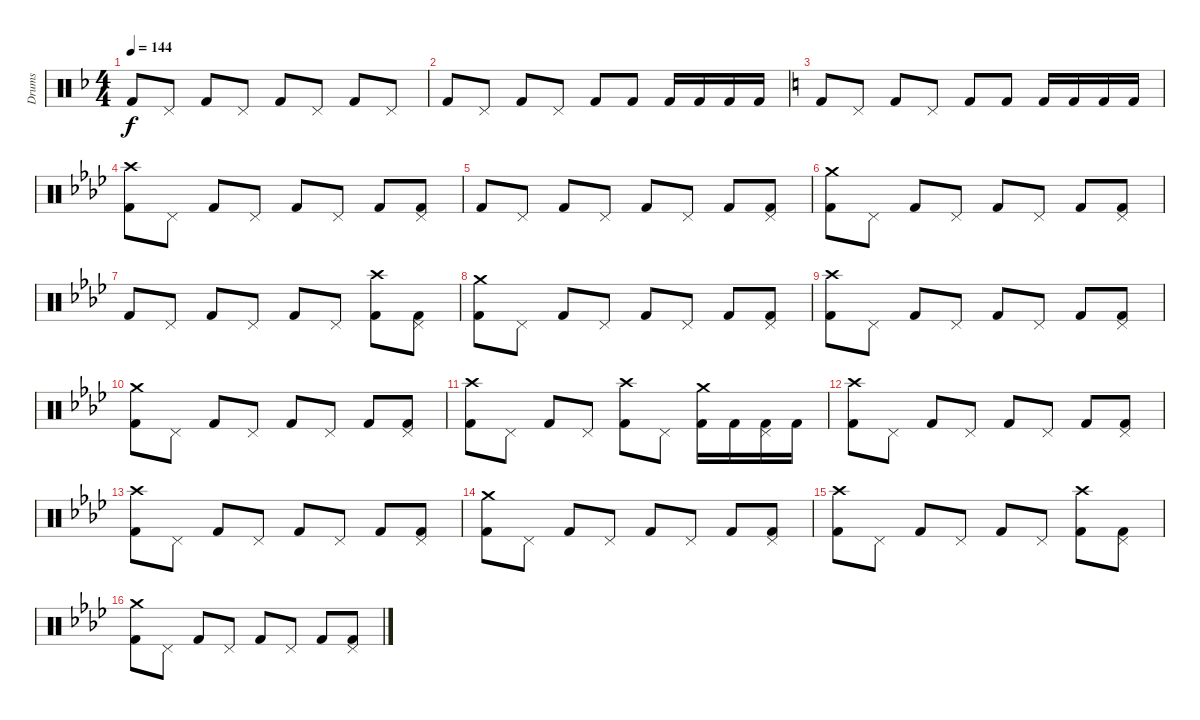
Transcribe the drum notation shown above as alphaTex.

\track ("Drums" "Drums") {instrument percussion}
\staff {score}
\articulation defaults
\ts (4 4)
\tempo 144
\clef neutral
\ks f "Kick (hit) 2".8{dy f} "Pedal Hi-Hat (hit)".8 "Kick (hit) 2".8 "Pedal Hi-Hat (hit)".8 "Kick (hit) 2".8 "Pedal Hi-Hat (hit)".8 "Kick (hit) 2".8 "Pedal Hi-Hat (hit)".8
|
"Kick (hit) 2".8 "Pedal Hi-Hat (hit)".8 "Kick (hit) 2".8 "Pedal Hi-Hat (hit)".8 "Kick (hit) 2".8 "Kick (hit) 2".8 "Kick (hit) 2".16 "Kick (hit) 2".16 "Kick (hit) 2".16 "Kick (hit) 2".16 |
\ks c "Kick (hit) 2".8 "Pedal Hi-Hat (hit)".8 "Kick (hit) 2".8 "Pedal Hi-Hat (hit)".8 "Kick (hit) 2".8 "Kick (hit) 2".8 "Kick (hit) 2".16 "Kick (hit) 2".16 "Kick (hit) 2".16 "Kick (hit) 2".16
|
\ks ab
("Kick (hit) 2" "Crash high (hit)").8 "Pedal Hi-Hat (hit)".8 "Kick (hit) 2".8 "Pedal Hi-Hat (hit)".8 "Kick (hit) 2".8 "Pedal Hi-Hat (hit)".8 "Kick (hit) 2".8 ("Kick (hit) 2" "Pedal Hi-Hat (hit)").8 |
"Kick (hit) 2".8 "Pedal Hi-Hat (hit)".8 "Kick (hit) 2".8 "Pedal Hi-Hat (hit)".8 "Kick (hit) 2".8 "Pedal Hi-Hat (hit)".8 "Kick (hit) 2".8 ("Kick (hit) 2" "Pedal Hi-Hat (hit)").8 |
("Kick (hit) 2" "Crash medium (hit)").8 "Pedal Hi-Hat (hit)".8 "Kick (hit) 2".8 "Pedal Hi-Hat (hit)".8 "Kick (hit) 2".8 "Pedal Hi-Hat (hit)".8 "Kick (hit) 2".8 ("Kick (hit) 2" "Pedal Hi-Hat (hit)").8 |
"Kick (hit) 2".8 "Pedal Hi-Hat (hit)".8 "Kick (hit) 2".8 "Pedal Hi-Hat (hit)".8 "Kick (hit) 2".8 "Pedal Hi-Hat (hit)".8 ("Kick (hit) 2" "Crash high (hit)").8 ("Kick (hit) 2" "Pedal Hi-Hat (hit)").8 |
("Kick (hit) 2" "Crash medium (hit)").8 "Pedal Hi-Hat (hit)".8 "Kick (hit) 2".8 "Pedal Hi-Hat (hit)".8 "Kick (hit) 2".8 "Pedal Hi-Hat (hit)".8 "Kick (hit) 2".8 ("Kick (hit) 2" "Pedal Hi-Hat (hit)").8 |
("Kick (hit) 2" "Crash high (hit)").8 "Pedal Hi-Hat (hit)".8 "Kick (hit) 2".8 "Pedal Hi-Hat (hit)".8 "Kick (hit) 2".8 "Pedal Hi-Hat (hit)".8 "Kick (hit) 2".8 ("Kick (hit) 2" "Pedal Hi-Hat (hit)").8 |
("Kick (hit) 2" "Crash medium (hit)").8 "Pedal Hi-Hat (hit)".8 "Kick (hit) 2".8 "Pedal Hi-Hat (hit)".8 "Kick (hit) 2".8 "Pedal Hi-Hat (hit)".8 "Kick (hit) 2".8 ("Kick (hit) 2" "Pedal Hi-Hat (hit)").8 |
("Kick (hit) 2" "Crash high (hit)").8 "Pedal Hi-Hat (hit)".8 "Kick (hit) 2".8 "Pedal Hi-Hat (hit)".8 ("Kick (hit) 2" "Crash high (hit)").8 "Pedal Hi-Hat (hit)".8 ("Kick (hit) 2" "Crash medium (hit)").16 "Kick (hit) 2".16 ("Kick (hit) 2" "Pedal Hi-Hat (hit)").16 "Kick (hit) 2".16 |
("Kick (hit) 2" "Crash high (hit)").8 "Pedal Hi-Hat (hit)".8 "Kick (hit) 2".8 "Pedal Hi-Hat (hit)".8 "Kick (hit) 2".8 "Pedal Hi-Hat (hit)".8 "Kick (hit) 2".8 ("Kick (hit) 2" "Pedal Hi-Hat (hit)").8 |
("Kick (hit) 2" "Crash high (hit)").8 "Pedal Hi-Hat (hit)".8 "Kick (hit) 2".8 "Pedal Hi-Hat (hit)".8 "Kick (hit) 2".8 "Pedal Hi-Hat (hit)".8 "Kick (hit) 2".8 ("Kick (hit) 2" "Pedal Hi-Hat (hit)").8 |
("Kick (hit) 2" "Crash medium (hit)").8 "Pedal Hi-Hat (hit)".8 "Kick (hit) 2".8 "Pedal Hi-Hat (hit)".8 "Kick (hit) 2".8 "Pedal Hi-Hat (hit)".8 "Kick (hit) 2".8 ("Kick (hit) 2" "Pedal Hi-Hat (hit)").8 |
("Kick (hit) 2" "Crash high (hit)").8 "Pedal Hi-Hat (hit)".8 "Kick (hit) 2".8 "Pedal Hi-Hat (hit)".8 "Kick (hit) 2".8 "Pedal Hi-Hat (hit)".8 ("Kick (hit) 2" "Crash high (hit)").8 ("Kick (hit) 2" "Pedal Hi-Hat (hit)").8 |
("Kick (hit) 2" "Crash medium (hit)").8 "Pedal Hi-Hat (hit)".8 "Kick (hit) 2".8 "Pedal Hi-Hat (hit)".8 "Kick (hit) 2".8 "Pedal Hi-Hat (hit)".8 "Kick (hit) 2".8 ("Kick (hit) 2" "Pedal Hi-Hat (hit)").8
